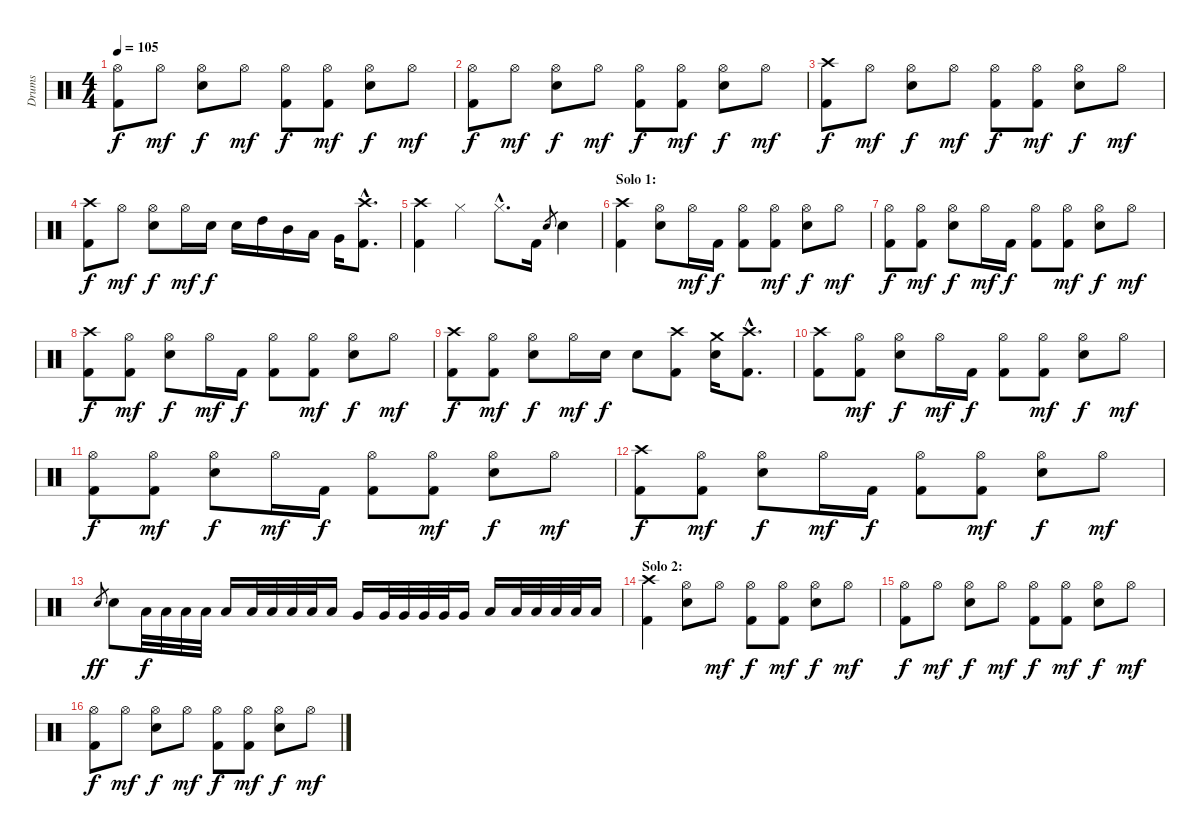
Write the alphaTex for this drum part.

\track ("Drums" "Drums") {instrument percussion}
\staff {score}
\articulation defaults
\ts (4 4)
\tempo 105
\clef neutral
\ks c
("Hi-Hat (open)" "Kick (hit) 2").8{dy f} "Hi-Hat (open)".8{dy mf} ("Hi-Hat (open)" "Electric Snare (hit)").8{dy f} "Hi-Hat (open)".8{dy mf} ("Hi-Hat (open)" "Kick (hit) 2").8{dy f} ("Hi-Hat (open)" "Kick (hit) 2").8{dy mf} ("Hi-Hat (open)" "Electric Snare (hit)").8{dy f} "Hi-Hat (open)".8{dy mf} |
("Hi-Hat (open)" "Kick (hit) 2").8{dy f} "Hi-Hat (open)".8{dy mf} ("Hi-Hat (open)" "Electric Snare (hit)").8{dy f} "Hi-Hat (open)".8{dy mf} ("Hi-Hat (open)" "Kick (hit) 2").8{dy f} ("Hi-Hat (open)" "Kick (hit) 2").8{dy mf} ("Hi-Hat (open)" "Electric Snare (hit)").8{dy f} "Hi-Hat (open)".8{dy mf} |
("Crash high (hit)" "Kick (hit) 2").8{dy f} "Hi-Hat (open)".8{dy mf} ("Hi-Hat (open)" "Electric Snare (hit)").8{dy f} "Hi-Hat (open)".8{dy mf} ("Hi-Hat (open)" "Kick (hit) 2").8{dy f} ("Hi-Hat (open)" "Kick (hit) 2").8{dy mf} ("Hi-Hat (open)" "Electric Snare (hit)").8{dy f} "Hi-Hat (open)".8{dy mf} |
("Crash high (hit)" "Kick (hit) 2").8{dy f} "Hi-Hat (open)".8{dy mf} ("Hi-Hat (open)" "Electric Snare (hit)").8{dy f} "Hi-Hat (open)".16{dy mf} "Electric Snare (hit)".16{dy f} "Electric Snare (hit)".16 "High Tom (hit)".16 "Mid Tom (hit)".16 "Low Tom (hit)".16 "Very Low Tom (hit)".16 ("Crash high (hit)"{hac} "Kick (hit) 2"{hac}).8{d} |
("Crash high (hit)" "Kick (hit) 2").4 "Hi-Hat (closed)".4 "Hi-Hat (closed)"{hac}.8{d} "Kick (hit) 2".16 "Electric Snare (hit)".8{gr} "Electric Snare (hit)".4 |
\section ("" "Solo 1:")
("Crash high (hit)" "Kick (hit) 2").4 ("Hi-Hat (open)" "Electric Snare (hit)").8 "Hi-Hat (open)".16{dy mf} "Kick (hit) 2".16{dy f} ("Hi-Hat (open)" "Kick (hit) 2").8 ("Hi-Hat (open)" "Kick (hit) 2").8{dy mf} ("Hi-Hat (open)" "Electric Snare (hit)").8{dy f} "Hi-Hat (open)".8{dy mf} |
("Hi-Hat (open)" "Kick (hit) 2").8{dy f} ("Hi-Hat (open)" "Kick (hit) 2").8{dy mf} ("Hi-Hat (open)" "Electric Snare (hit)").8{dy f} "Hi-Hat (open)".16{dy mf} "Kick (hit) 2".16{dy f} ("Hi-Hat (open)" "Kick (hit) 2").8 ("Hi-Hat (open)" "Kick (hit) 2").8{dy mf} ("Hi-Hat (open)" "Electric Snare (hit)").8{dy f} "Hi-Hat (open)".8{dy mf} |
("Crash high (hit)" "Kick (hit) 2").8{dy f} ("Hi-Hat (open)" "Kick (hit) 2").8{dy mf} ("Hi-Hat (open)" "Electric Snare (hit)").8{dy f} "Hi-Hat (open)".16{dy mf} "Kick (hit) 2".16{dy f} ("Hi-Hat (open)" "Kick (hit) 2").8 ("Hi-Hat (open)" "Kick (hit) 2").8{dy mf} ("Hi-Hat (open)" "Electric Snare (hit)").8{dy f} "Hi-Hat (open)".8{dy mf} |
("Crash high (hit)" "Kick (hit) 2").8{dy f} ("Hi-Hat (open)" "Kick (hit) 2").8{dy mf} ("Hi-Hat (open)" "Electric Snare (hit)").8{dy f} "Hi-Hat (open)".16{dy mf} "Electric Snare (hit)".16{dy f} "Electric Snare (hit)".8 ("Crash high (hit)" "Kick (hit) 2").8 ("Crash medium (hit)" "Electric Snare (hit)").16 ("Crash high (hit)"{hac} "Kick (hit) 2"{hac}).8{d} |
("Crash high (hit)" "Kick (hit) 2").8 ("Hi-Hat (open)" "Kick (hit) 2").8{dy mf} ("Hi-Hat (open)" "Electric Snare (hit)").8{dy f} "Hi-Hat (open)".16{dy mf} "Kick (hit) 2".16{dy f} ("Hi-Hat (open)" "Kick (hit) 2").8 ("Hi-Hat (open)" "Kick (hit) 2").8{dy mf} ("Hi-Hat (open)" "Electric Snare (hit)").8{dy f} "Hi-Hat (open)".8{dy mf} |
("Hi-Hat (open)" "Kick (hit) 2").8{dy f} ("Hi-Hat (open)" "Kick (hit) 2").8{dy mf} ("Hi-Hat (open)" "Electric Snare (hit)").8{dy f} "Hi-Hat (open)".16{dy mf} "Kick (hit) 2".16{dy f} ("Hi-Hat (open)" "Kick (hit) 2").8 ("Hi-Hat (open)" "Kick (hit) 2").8{dy mf} ("Hi-Hat (open)" "Electric Snare (hit)").8{dy f} "Hi-Hat (open)".8{dy mf} |
("Crash high (hit)" "Kick (hit) 2").8{dy f} ("Hi-Hat (open)" "Kick (hit) 2").8{dy mf} ("Hi-Hat (open)" "Electric Snare (hit)").8{dy f} "Hi-Hat (open)".16{dy mf} "Kick (hit) 2".16{dy f} ("Hi-Hat (open)" "Kick (hit) 2").8 ("Hi-Hat (open)" "Kick (hit) 2").8{dy mf} ("Hi-Hat (open)" "Electric Snare (hit)").8{dy f} "Hi-Hat (open)".8{dy mf} |
"Electric Snare (hit)".8{gr dy ff} "Electric Snare (hit)".8 "Low Tom (hit)".32{dy f} "Low Tom (hit)".32 "Low Tom (hit)".32 "Low Tom (hit)".32 "Low Tom (hit)".16 "Low Tom (hit)".32 "Low Tom (hit)".32 "Low Tom (hit)".32 "Low Tom (hit)".32 "Low Tom (hit)".16 "Very Low Tom (hit)".16 "Very Low Tom (hit)".32 "Very Low Tom (hit)".32 "Very Low Tom (hit)".32 "Very Low Tom (hit)".32 "Very Low Tom (hit)".16 "Low Floor Tom (hit)".16 "Low Floor Tom (hit)".32 "Low Floor Tom (hit)".32 "Low Floor Tom (hit)".32 "Low Floor Tom (hit)".32 "Low Floor Tom (hit)".16 |
\section ("" "Solo 2:")
("Crash high (hit)" "Kick (hit) 2").4 ("Hi-Hat (open)" "Electric Snare (hit)").8 "Hi-Hat (open)".8{dy mf} ("Hi-Hat (open)" "Kick (hit) 2").8{dy f} ("Hi-Hat (open)" "Kick (hit) 2").8{dy mf} ("Hi-Hat (open)" "Electric Snare (hit)").8{dy f} "Hi-Hat (open)".8{dy mf} |
("Hi-Hat (open)" "Kick (hit) 2").8{dy f} "Hi-Hat (open)".8{dy mf} ("Hi-Hat (open)" "Electric Snare (hit)").8{dy f} "Hi-Hat (open)".8{dy mf} ("Hi-Hat (open)" "Kick (hit) 2").8{dy f} ("Hi-Hat (open)" "Kick (hit) 2").8{dy mf} ("Hi-Hat (open)" "Electric Snare (hit)").8{dy f} "Hi-Hat (open)".8{dy mf} |
("Hi-Hat (open)" "Kick (hit) 2").8{dy f} "Hi-Hat (open)".8{dy mf} ("Hi-Hat (open)" "Electric Snare (hit)").8{dy f} "Hi-Hat (open)".8{dy mf} ("Hi-Hat (open)" "Kick (hit) 2").8{dy f} ("Hi-Hat (open)" "Kick (hit) 2").8{dy mf} ("Hi-Hat (open)" "Electric Snare (hit)").8{dy f} "Hi-Hat (open)".8{dy mf}
